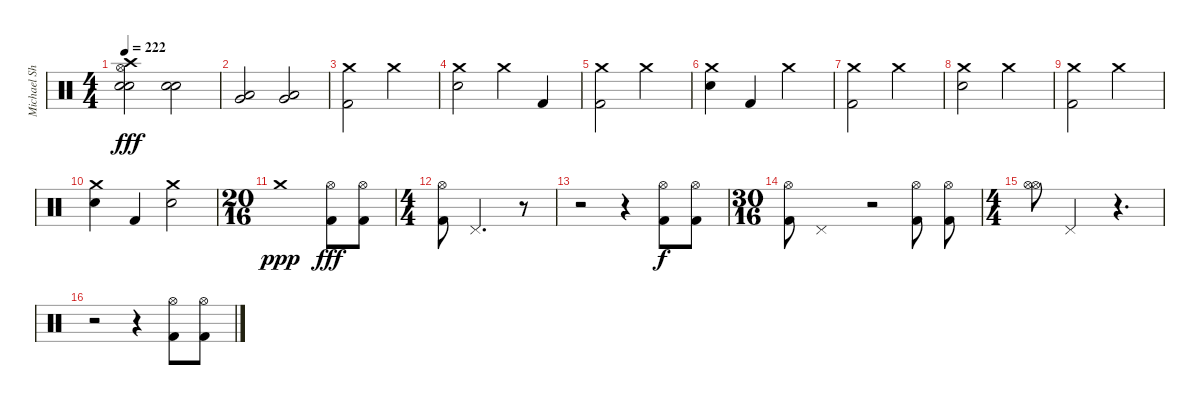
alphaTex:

\track ("Michael Sharp" "Michael Sh") {instrument percussion}
\staff {score}
\articulation defaults
\ts (4 4)
\tempo 222
\clef neutral
\ks c
("Crash high (hit)" "Hi-Hat (open)" "Electric Snare (hit)" "Electric Snare (hit)").2{dy fff} ("Electric Snare (hit)" "Electric Snare (hit)").2 |
("Very Low Tom (hit)" "Low Tom (hit)").2 ("Low Floor Tom (hit)" "Very Low Tom (hit)").2 |
("Crash medium (hit)" "Kick (hit) 2").2 "Crash medium (hit)".2 |
("Crash medium (hit)" "Electric Snare (hit)").2 "Crash medium (hit)".4 "Kick (hit) 2".4 |
("Crash medium (hit)" "Kick (hit) 2").2 "Crash medium (hit)".2 |
("Crash medium (hit)" "Electric Snare (hit)").4 "Kick (hit) 2".4 "Crash medium (hit)".2 |
("Crash medium (hit)" "Kick (hit) 2").2 "Crash medium (hit)".2 |
("Crash medium (hit)" "Electric Snare (hit)").2 "Crash medium (hit)".2 |
("Crash medium (hit)" "Kick (hit) 2").2 "Crash medium (hit)".2 |
("Crash medium (hit)" "Electric Snare (hit)").4 "Kick (hit) 2".4 ("Crash medium (hit)" "Electric Snare (hit)").2 |
\ts (20 16)
"Crash medium (hit)".1{dy ppp} ("Hi-Hat (open)" "Kick (hit) 2").8{dy fff} ("Hi-Hat (open)" "Kick (hit) 2").8 |
\ts (4 4)
("Hi-Hat (open)" "Kick (hit) 2").8 "Pedal Hi-Hat (hit)".2{d} r.8 |
r.2 r.4 ("Hi-Hat (open)" "Kick (hit) 2").8{dy f} ("Hi-Hat (open)" "Kick (hit) 2").8 |
\ts (30 16)
("Hi-Hat (open)" "Kick (hit) 2").8 "Pedal Hi-Hat (hit)".1 r.2 ("Hi-Hat (open)" "Kick (hit) 2").8 ("Hi-Hat (open)" "Kick (hit) 2").8 |
\ts (4 4)
("Hi-Hat (open)" "Hi-Hat (open)").8 "Pedal Hi-Hat (hit)".2 r.4{d} |
r.2 r.4 ("Hi-Hat (open)" "Kick (hit) 2").8 ("Hi-Hat (open)" "Kick (hit) 2").8
